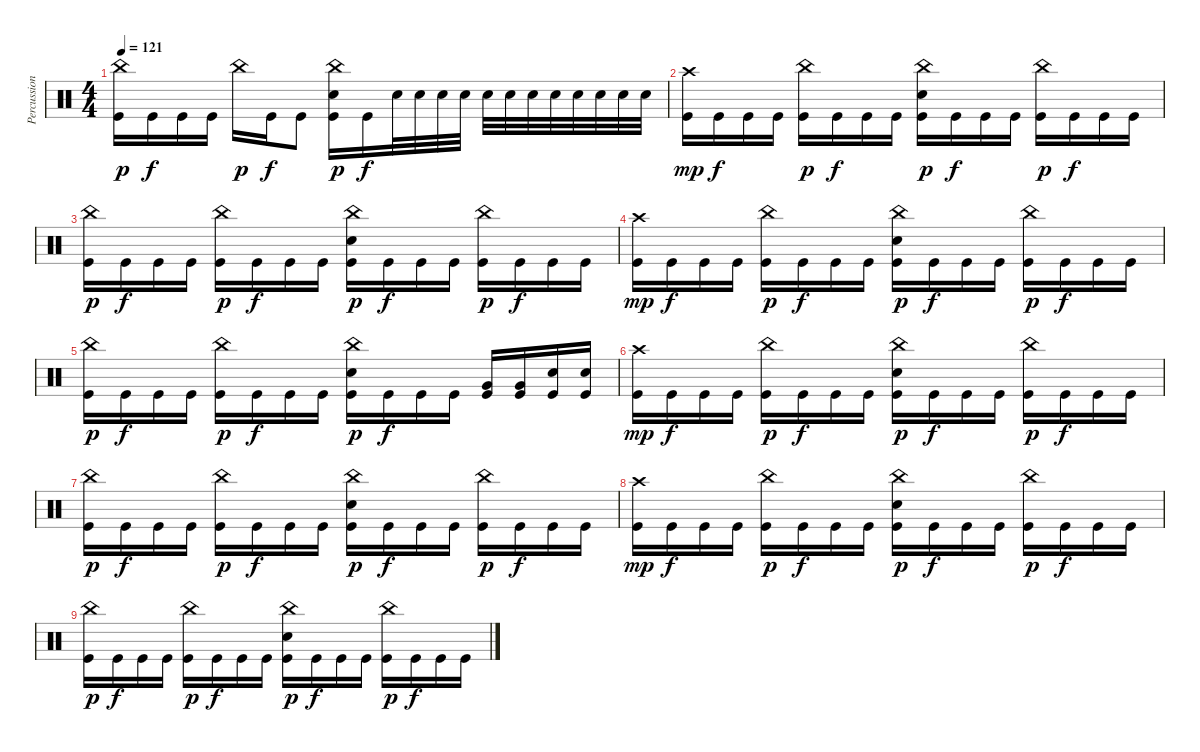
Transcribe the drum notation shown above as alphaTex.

\track ("Percussion" "Percussion") {instrument percussion}
\staff {score}
\articulation defaults
\ts (4 4)
\tempo 121
\clef neutral
\ks c
("China (hit)" "Kick (hit)").16{dy p} "Kick (hit)".16{dy f} "Kick (hit)".16 "Kick (hit)".16 "China (hit)".16{dy p} "Kick (hit)".16{dy f} "Kick (hit)".8 ("China (hit)" "Electric Snare (hit)" "Kick (hit)").16{dy p} "Kick (hit)".16{dy f} "Electric Snare (hit)".32 "Electric Snare (hit)".32 "Electric Snare (hit)".32 "Electric Snare (hit)".32 "Electric Snare (hit)".32 "Electric Snare (hit)".32 "Electric Snare (hit)".32 "Electric Snare (hit)".32 "Electric Snare (hit)".32 "Electric Snare (hit)".32 "Electric Snare (hit)".32 "Electric Snare (hit)".32 |
("Crash high (hit)" "Kick (hit)").16{dy mp volume 7} "Kick (hit)".16{dy f} "Kick (hit)".16 "Kick (hit)".16 ("China (hit)" "Kick (hit)").16{dy p} "Kick (hit)".16{dy f} "Kick (hit)".16 "Kick (hit)".16 ("China (hit)" "Electric Snare (hit)" "Kick (hit)").16{dy p} "Kick (hit)".16{dy f} "Kick (hit)".16 "Kick (hit)".16 ("China (hit)" "Kick (hit)").16{dy p} "Kick (hit)".16{dy f} "Kick (hit)".16 "Kick (hit)".16 |
("China (hit)" "Kick (hit)").16{dy p} "Kick (hit)".16{dy f} "Kick (hit)".16 "Kick (hit)".16 ("China (hit)" "Kick (hit)").16{dy p} "Kick (hit)".16{dy f} "Kick (hit)".16 "Kick (hit)".16 ("China (hit)" "Electric Snare (hit)" "Kick (hit)").16{dy p} "Kick (hit)".16{dy f} "Kick (hit)".16 "Kick (hit)".16 ("China (hit)" "Kick (hit)").16{dy p} "Kick (hit)".16{dy f} "Kick (hit)".16 "Kick (hit)".16 |
("Crash high (hit)" "Kick (hit)").16{dy mp} "Kick (hit)".16{dy f} "Kick (hit)".16 "Kick (hit)".16 ("China (hit)" "Kick (hit)").16{dy p} "Kick (hit)".16{dy f} "Kick (hit)".16 "Kick (hit)".16 ("China (hit)" "Electric Snare (hit)" "Kick (hit)").16{dy p} "Kick (hit)".16{dy f} "Kick (hit)".16 "Kick (hit)".16 ("China (hit)" "Kick (hit)").16{dy p} "Kick (hit)".16{dy f} "Kick (hit)".16 "Kick (hit)".16 |
("China (hit)" "Kick (hit)").16{dy p} "Kick (hit)".16{dy f} "Kick (hit)".16 "Kick (hit)".16 ("China (hit)" "Kick (hit)").16{dy p} "Kick (hit)".16{dy f} "Kick (hit)".16 "Kick (hit)".16 ("China (hit)" "Electric Snare (hit)" "Kick (hit)").16{dy p} "Kick (hit)".16{dy f} "Kick (hit)".16 "Kick (hit)".16 ("Very Low Tom (hit)" "Kick (hit)").16 ("Very Low Tom (hit)" "Kick (hit)").16 ("Electric Snare (hit)" "Kick (hit)").16 ("Electric Snare (hit)" "Kick (hit)").16 |
("Crash high (hit)" "Kick (hit)").16{dy mp volume 0} "Kick (hit)".16{dy f} "Kick (hit)".16 "Kick (hit)".16 ("China (hit)" "Kick (hit)").16{dy p} "Kick (hit)".16{dy f} "Kick (hit)".16 "Kick (hit)".16 ("China (hit)" "Electric Snare (hit)" "Kick (hit)").16{dy p} "Kick (hit)".16{dy f} "Kick (hit)".16 "Kick (hit)".16 ("China (hit)" "Kick (hit)").16{dy p} "Kick (hit)".16{dy f} "Kick (hit)".16 "Kick (hit)".16 |
("China (hit)" "Kick (hit)").16{dy p} "Kick (hit)".16{dy f} "Kick (hit)".16 "Kick (hit)".16 ("China (hit)" "Kick (hit)").16{dy p} "Kick (hit)".16{dy f} "Kick (hit)".16 "Kick (hit)".16 ("China (hit)" "Electric Snare (hit)" "Kick (hit)").16{dy p} "Kick (hit)".16{dy f} "Kick (hit)".16 "Kick (hit)".16 ("China (hit)" "Kick (hit)").16{dy p} "Kick (hit)".16{dy f} "Kick (hit)".16 "Kick (hit)".16 |
("Crash high (hit)" "Kick (hit)").16{dy mp} "Kick (hit)".16{dy f} "Kick (hit)".16 "Kick (hit)".16 ("China (hit)" "Kick (hit)").16{dy p} "Kick (hit)".16{dy f} "Kick (hit)".16 "Kick (hit)".16 ("China (hit)" "Electric Snare (hit)" "Kick (hit)").16{dy p} "Kick (hit)".16{dy f} "Kick (hit)".16 "Kick (hit)".16 ("China (hit)" "Kick (hit)").16{dy p} "Kick (hit)".16{dy f} "Kick (hit)".16 "Kick (hit)".16 |
("China (hit)" "Kick (hit)").16{dy p} "Kick (hit)".16{dy f} "Kick (hit)".16 "Kick (hit)".16 ("China (hit)" "Kick (hit)").16{dy p} "Kick (hit)".16{dy f} "Kick (hit)".16 "Kick (hit)".16 ("China (hit)" "Electric Snare (hit)" "Kick (hit)").16{dy p} "Kick (hit)".16{dy f} "Kick (hit)".16 "Kick (hit)".16 ("China (hit)" "Kick (hit)").16{dy p} "Kick (hit)".16{dy f} "Kick (hit)".16 "Kick (hit)".16
